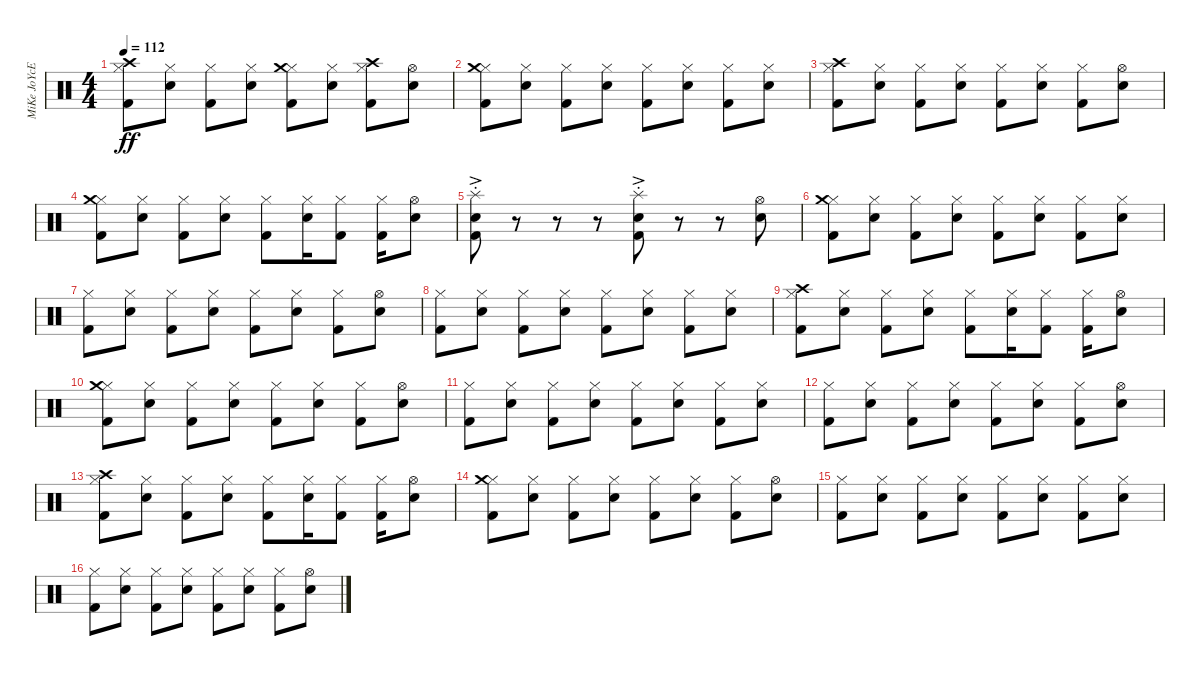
\track ("MiKe JoYcE" "MiKe JoYcE") {instrument percussion}
\staff {score}
\articulation defaults
\ts (4 4)
\tempo 112
\clef neutral
\ks c
("Hi-Hat (closed)" "Crash high (hit)" "Kick (hit) 2").8{dy ff} ("Hi-Hat (closed)" "Electric Snare (hit)").8 ("Hi-Hat (closed)" "Kick (hit) 2").8 ("Hi-Hat (closed)" "Electric Snare (hit)").8 ("Hi-Hat (closed)" "Crash medium (hit)" "Kick (hit) 2").8 ("Hi-Hat (closed)" "Electric Snare (hit)").8 ("Hi-Hat (closed)" "Crash high (hit)" "Kick (hit) 2").8 ("Hi-Hat (open)" "Electric Snare (hit)").8 |
("Hi-Hat (closed)" "Crash medium (hit)" "Kick (hit) 2").8 ("Hi-Hat (closed)" "Electric Snare (hit)").8 ("Hi-Hat (closed)" "Kick (hit) 2").8 ("Hi-Hat (closed)" "Electric Snare (hit)").8 ("Hi-Hat (closed)" "Kick (hit) 2").8 ("Hi-Hat (closed)" "Electric Snare (hit)").8 ("Hi-Hat (closed)" "Kick (hit) 2").8 ("Hi-Hat (closed)" "Electric Snare (hit)").8 |
("Hi-Hat (closed)" "Crash high (hit)" "Kick (hit) 2").8 ("Hi-Hat (closed)" "Electric Snare (hit)").8 ("Hi-Hat (closed)" "Kick (hit) 2").8 ("Hi-Hat (closed)" "Electric Snare (hit)").8 ("Hi-Hat (closed)" "Kick (hit) 2").8 ("Hi-Hat (closed)" "Electric Snare (hit)").8 ("Hi-Hat (closed)" "Kick (hit) 2").8 ("Hi-Hat (open)" "Electric Snare (hit)").8 |
("Hi-Hat (closed)" "Crash medium (hit)" "Kick (hit) 2").8 ("Hi-Hat (closed)" "Electric Snare (hit)").8 ("Hi-Hat (closed)" "Kick (hit) 2").8 ("Hi-Hat (closed)" "Electric Snare (hit)").8 ("Hi-Hat (closed)" "Kick (hit) 2").8 ("Hi-Hat (closed)" "Electric Snare (hit)").16 ("Hi-Hat (closed)" "Kick (hit) 2").8 ("Hi-Hat (closed)" "Kick (hit) 2").16 ("Hi-Hat (open)" "Electric Snare (hit)").8 |
("Splash (hit)"{ac st} "Electric Snare (hit)" "Kick (hit) 2").8 r.8 r.8 r.8 ("Splash (hit)"{ac st} "Electric Snare (hit)" "Kick (hit) 2").8 r.8 r.8 ("Hi-Hat (open)" "Electric Snare (hit)").8 |
("Hi-Hat (closed)" "Crash medium (hit)" "Kick (hit) 2").8 ("Hi-Hat (closed)" "Electric Snare (hit)").8 ("Hi-Hat (closed)" "Kick (hit) 2").8 ("Hi-Hat (closed)" "Electric Snare (hit)").8 ("Hi-Hat (closed)" "Kick (hit) 2").8 ("Hi-Hat (closed)" "Electric Snare (hit)").8 ("Hi-Hat (closed)" "Kick (hit) 2").8 ("Hi-Hat (closed)" "Electric Snare (hit)").8 |
("Hi-Hat (closed)" "Kick (hit) 2").8 ("Hi-Hat (closed)" "Electric Snare (hit)").8 ("Hi-Hat (closed)" "Kick (hit) 2").8 ("Hi-Hat (closed)" "Electric Snare (hit)").8 ("Hi-Hat (closed)" "Kick (hit) 2").8 ("Hi-Hat (closed)" "Electric Snare (hit)").8 ("Hi-Hat (closed)" "Kick (hit) 2").8 ("Hi-Hat (open)" "Electric Snare (hit)").8 |
("Hi-Hat (closed)" "Kick (hit) 2").8 ("Hi-Hat (closed)" "Electric Snare (hit)").8 ("Hi-Hat (closed)" "Kick (hit) 2").8 ("Hi-Hat (closed)" "Electric Snare (hit)").8 ("Hi-Hat (closed)" "Kick (hit) 2").8 ("Hi-Hat (closed)" "Electric Snare (hit)").8 ("Hi-Hat (closed)" "Kick (hit) 2").8 ("Hi-Hat (closed)" "Electric Snare (hit)").8 |
("Hi-Hat (closed)" "Crash high (hit)" "Kick (hit) 2").8 ("Hi-Hat (closed)" "Electric Snare (hit)").8 ("Hi-Hat (closed)" "Kick (hit) 2").8 ("Hi-Hat (closed)" "Electric Snare (hit)").8 ("Hi-Hat (closed)" "Kick (hit) 2").8 ("Hi-Hat (closed)" "Electric Snare (hit)").16 ("Hi-Hat (closed)" "Kick (hit) 2").8 ("Hi-Hat (closed)" "Kick (hit) 2").16 ("Hi-Hat (open)" "Electric Snare (hit)").8 |
("Hi-Hat (closed)" "Crash medium (hit)" "Kick (hit) 2").8 ("Hi-Hat (closed)" "Electric Snare (hit)").8 ("Hi-Hat (closed)" "Kick (hit) 2").8 ("Hi-Hat (closed)" "Electric Snare (hit)").8 ("Hi-Hat (closed)" "Kick (hit) 2").8 ("Hi-Hat (closed)" "Electric Snare (hit)").8 ("Hi-Hat (closed)" "Kick (hit) 2").8 ("Hi-Hat (open)" "Electric Snare (hit)").8 |
("Hi-Hat (closed)" "Kick (hit) 2").8 ("Hi-Hat (closed)" "Electric Snare (hit)").8 ("Hi-Hat (closed)" "Kick (hit) 2").8 ("Hi-Hat (closed)" "Electric Snare (hit)").8 ("Hi-Hat (closed)" "Kick (hit) 2").8 ("Hi-Hat (closed)" "Electric Snare (hit)").8 ("Hi-Hat (closed)" "Kick (hit) 2").8 ("Hi-Hat (closed)" "Electric Snare (hit)").8 |
("Hi-Hat (closed)" "Kick (hit) 2").8 ("Hi-Hat (closed)" "Electric Snare (hit)").8 ("Hi-Hat (closed)" "Kick (hit) 2").8 ("Hi-Hat (closed)" "Electric Snare (hit)").8 ("Hi-Hat (closed)" "Kick (hit) 2").8 ("Hi-Hat (closed)" "Electric Snare (hit)").8 ("Hi-Hat (closed)" "Kick (hit) 2").8 ("Hi-Hat (open)" "Electric Snare (hit)").8 |
("Hi-Hat (closed)" "Crash high (hit)" "Kick (hit) 2").8 ("Hi-Hat (closed)" "Electric Snare (hit)").8 ("Hi-Hat (closed)" "Kick (hit) 2").8 ("Hi-Hat (closed)" "Electric Snare (hit)").8 ("Hi-Hat (closed)" "Kick (hit) 2").8 ("Hi-Hat (closed)" "Electric Snare (hit)").16 ("Hi-Hat (closed)" "Kick (hit) 2").8 ("Hi-Hat (closed)" "Kick (hit) 2").16 ("Hi-Hat (open)" "Electric Snare (hit)").8 |
("Hi-Hat (closed)" "Crash medium (hit)" "Kick (hit) 2").8 ("Hi-Hat (closed)" "Electric Snare (hit)").8 ("Hi-Hat (closed)" "Kick (hit) 2").8 ("Hi-Hat (closed)" "Electric Snare (hit)").8 ("Hi-Hat (closed)" "Kick (hit) 2").8 ("Hi-Hat (closed)" "Electric Snare (hit)").8 ("Hi-Hat (closed)" "Kick (hit) 2").8 ("Hi-Hat (open)" "Electric Snare (hit)").8 |
("Hi-Hat (closed)" "Kick (hit) 2").8 ("Hi-Hat (closed)" "Electric Snare (hit)").8 ("Hi-Hat (closed)" "Kick (hit) 2").8 ("Hi-Hat (closed)" "Electric Snare (hit)").8 ("Hi-Hat (closed)" "Kick (hit) 2").8 ("Hi-Hat (closed)" "Electric Snare (hit)").8 ("Hi-Hat (closed)" "Kick (hit) 2").8 ("Hi-Hat (closed)" "Electric Snare (hit)").8 |
("Hi-Hat (closed)" "Kick (hit) 2").8 ("Hi-Hat (closed)" "Electric Snare (hit)").8 ("Hi-Hat (closed)" "Kick (hit) 2").8 ("Hi-Hat (closed)" "Electric Snare (hit)").8 ("Hi-Hat (closed)" "Kick (hit) 2").8 ("Hi-Hat (closed)" "Electric Snare (hit)").8 ("Hi-Hat (closed)" "Kick (hit) 2").8 ("Hi-Hat (open)" "Electric Snare (hit)").8
